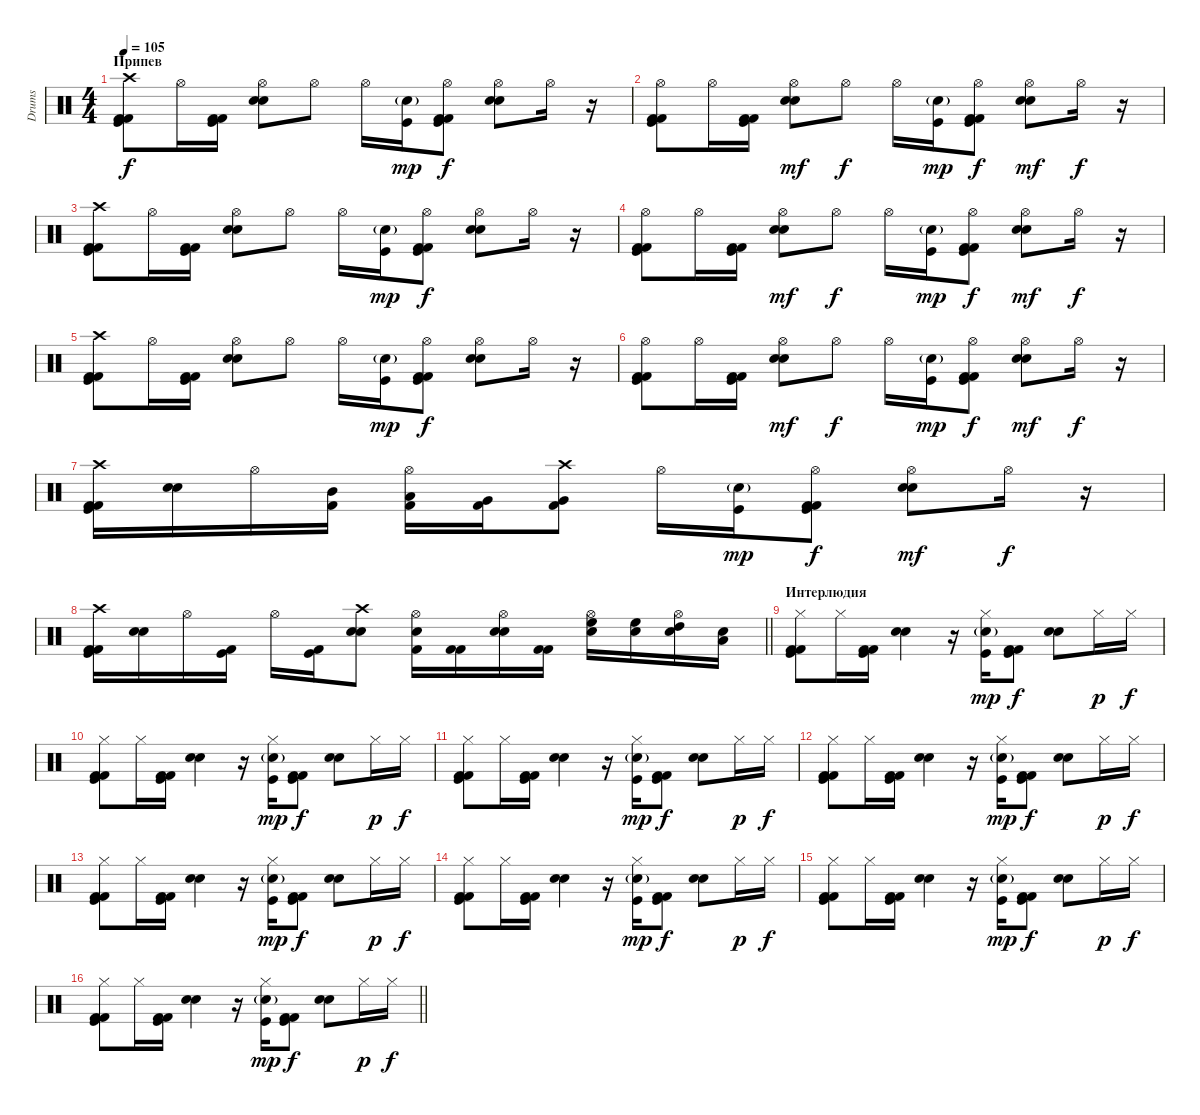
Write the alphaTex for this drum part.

\track ("Drums" "Drums") {instrument percussion}
\staff {score}
\articulation defaults
\ts (4 4)
\section ("" "Припев")
\tempo 105
\clef neutral
\ks c
("Crash high (hit)" "Kick (hit) 2" "Kick (hit) 2" "Kick (hit)").8{dy f volume 13} "Hi-Hat (open)".16 ("Kick (hit) 2" "Kick (hit) 2" "Kick (hit)").16 ("Hi-Hat (open)" "Electric Snare (hit)" "Snare (hit) 2").8 "Hi-Hat (open)".8 "Hi-Hat (open)".16 ("Snare (hit) 2"{g} "Kick (hit)").16{dy mp} ("Hi-Hat (open)" "Kick (hit) 2" "Kick (hit) 2" "Kick (hit)").8{dy f} ("Hi-Hat (open)" "Electric Snare (hit)" "Snare (hit) 2").8 "Hi-Hat (open)".16 r.16 |
("Hi-Hat (open)" "Kick (hit) 2" "Kick (hit) 2" "Kick (hit)").8 "Hi-Hat (open)".16 ("Kick (hit) 2" "Kick (hit) 2" "Kick (hit)").16 ("Hi-Hat (open)" "Electric Snare (hit)" "Snare (hit) 2").8{dy mf} "Hi-Hat (open)".8{dy f} "Hi-Hat (open)".16 ("Snare (hit) 2"{g} "Kick (hit)").16{dy mp} ("Hi-Hat (open)" "Kick (hit) 2" "Kick (hit) 2" "Kick (hit)").8{dy f} ("Hi-Hat (open)" "Electric Snare (hit)" "Snare (hit) 2").8{dy mf} "Hi-Hat (open)".16{dy f} r.16 |
("Crash high (hit)" "Kick (hit) 2" "Kick (hit) 2" "Kick (hit)").8 "Hi-Hat (open)".16 ("Kick (hit) 2" "Kick (hit) 2" "Kick (hit)").16 ("Hi-Hat (open)" "Electric Snare (hit)" "Snare (hit) 2").8 "Hi-Hat (open)".8 "Hi-Hat (open)".16 ("Snare (hit) 2"{g} "Kick (hit)").16{dy mp} ("Hi-Hat (open)" "Kick (hit) 2" "Kick (hit) 2" "Kick (hit)").8{dy f} ("Hi-Hat (open)" "Electric Snare (hit)" "Snare (hit) 2").8 "Hi-Hat (open)".16 r.16 |
("Hi-Hat (open)" "Kick (hit) 2" "Kick (hit) 2" "Kick (hit)").8 "Hi-Hat (open)".16 ("Kick (hit) 2" "Kick (hit) 2" "Kick (hit)").16 ("Hi-Hat (open)" "Electric Snare (hit)" "Snare (hit) 2").8{dy mf} "Hi-Hat (open)".8{dy f} "Hi-Hat (open)".16 ("Snare (hit) 2"{g} "Kick (hit)").16{dy mp} ("Hi-Hat (open)" "Kick (hit) 2" "Kick (hit) 2" "Kick (hit)").8{dy f} ("Hi-Hat (open)" "Electric Snare (hit)" "Snare (hit) 2").8{dy mf} "Hi-Hat (open)".16{dy f} r.16 |
("Crash high (hit)" "Kick (hit) 2" "Kick (hit) 2" "Kick (hit)").8 "Hi-Hat (open)".16 ("Kick (hit) 2" "Kick (hit) 2" "Kick (hit)").16 ("Hi-Hat (open)" "Electric Snare (hit)" "Snare (hit) 2").8 "Hi-Hat (open)".8 "Hi-Hat (open)".16 ("Snare (hit) 2"{g} "Kick (hit)").16{dy mp} ("Hi-Hat (open)" "Kick (hit) 2" "Kick (hit) 2" "Kick (hit)").8{dy f} ("Hi-Hat (open)" "Electric Snare (hit)" "Snare (hit) 2").8 "Hi-Hat (open)".16 r.16 |
("Hi-Hat (open)" "Kick (hit) 2" "Kick (hit) 2" "Kick (hit)").8 "Hi-Hat (open)".16 ("Kick (hit) 2" "Kick (hit) 2" "Kick (hit)").16 ("Hi-Hat (open)" "Electric Snare (hit)" "Snare (hit) 2").8{dy mf} "Hi-Hat (open)".8{dy f} "Hi-Hat (open)".16 ("Snare (hit) 2"{g} "Kick (hit)").16{dy mp} ("Hi-Hat (open)" "Kick (hit) 2" "Kick (hit) 2" "Kick (hit)").8{dy f} ("Hi-Hat (open)" "Electric Snare (hit)" "Snare (hit) 2").8{dy mf} "Hi-Hat (open)".16{dy f} r.16 |
("Crash high (hit)" "Kick (hit) 2" "Kick (hit) 2" "Kick (hit)").16 ("Electric Snare (hit)" "Snare (hit) 2").16 "Hi-Hat (open)".16 ("Mid Tom (hit)" "Kick (hit) 2").16 ("Hi-Hat (open)" "Low Tom (hit)" "Kick (hit) 2").16 ("Very Low Tom (hit)" "Kick (hit) 2").16 ("Crash high (hit)" "Very Low Tom (hit)" "Kick (hit) 2").8 "Hi-Hat (open)".16 ("Snare (hit) 2"{g} "Kick (hit)").16{dy mp} ("Hi-Hat (open)" "Kick (hit) 2" "Kick (hit) 2" "Kick (hit)").8{dy f} ("Hi-Hat (open)" "Electric Snare (hit)" "Snare (hit) 2").8{dy mf} "Hi-Hat (open)".16{dy f} r.16 |
\barLineRight lightlight
("Crash high (hit)" "Kick (hit) 2" "Kick (hit) 2" "Kick (hit)").16 ("Electric Snare (hit)" "Snare (hit) 2").16 "Hi-Hat (open)".16 ("Kick (hit) 2" "Kick (hit)").16 "Hi-Hat (open)".16 ("Kick (hit) 2" "Kick (hit)").16 ("Crash high (hit)" "Electric Snare (hit)" "Snare (hit) 2").8 ("Hi-Hat (open)" "Electric Snare (hit)" "Kick (hit) 2").16 ("Kick (hit) 2" "Kick (hit) 2").16 ("Hi-Hat (open)" "Electric Snare (hit)" "Electric Snare (hit)").16 ("Kick (hit) 2" "Kick (hit) 2").16 ("Hi-Hat (open)" "Electric Snare (hit)" "High Floor Tom (hit)").16 ("Electric Snare (hit)" "High Floor Tom (hit)").16 ("Hi-Hat (open)" "Electric Snare (hit)" "High Tom (hit)").16 ("Electric Snare (hit)" "Low Tom (hit)").16 |
\section ("" "Интерлюдия")
("Hi-Hat (closed)" "Kick (hit) 2" "Kick (hit) 2" "Kick (hit)").8 "Hi-Hat (closed)".16 ("Kick (hit) 2" "Kick (hit) 2" "Kick (hit)").16 ("Electric Snare (hit)" "Snare (hit) 2").4 r.16 ("Hi-Hat (closed)" "Snare (hit) 2"{g} "Kick (hit)").16{dy mp} ("Kick (hit) 2" "Kick (hit) 2" "Kick (hit)").8{dy f} ("Electric Snare (hit)" "Snare (hit) 2").8 "Hi-Hat (closed)".16{dy p} "Hi-Hat (closed)".16{dy f} |
("Hi-Hat (closed)" "Kick (hit) 2" "Kick (hit) 2" "Kick (hit)").8 "Hi-Hat (closed)".16 ("Kick (hit) 2" "Kick (hit) 2" "Kick (hit)").16 ("Electric Snare (hit)" "Snare (hit) 2").4 r.16 ("Hi-Hat (closed)" "Snare (hit) 2"{g} "Kick (hit)").16{dy mp} ("Kick (hit) 2" "Kick (hit) 2" "Kick (hit)").8{dy f} ("Electric Snare (hit)" "Snare (hit) 2").8 "Hi-Hat (closed)".16{dy p} "Hi-Hat (closed)".16{dy f} |
("Hi-Hat (closed)" "Kick (hit) 2" "Kick (hit) 2" "Kick (hit)").8 "Hi-Hat (closed)".16 ("Kick (hit) 2" "Kick (hit) 2" "Kick (hit)").16 ("Electric Snare (hit)" "Snare (hit) 2").4 r.16 ("Hi-Hat (closed)" "Snare (hit) 2"{g} "Kick (hit)").16{dy mp} ("Kick (hit) 2" "Kick (hit) 2" "Kick (hit)").8{dy f} ("Electric Snare (hit)" "Snare (hit) 2").8 "Hi-Hat (closed)".16{dy p} "Hi-Hat (closed)".16{dy f} |
("Hi-Hat (closed)" "Kick (hit) 2" "Kick (hit) 2" "Kick (hit)").8 "Hi-Hat (closed)".16 ("Kick (hit) 2" "Kick (hit) 2" "Kick (hit)").16 ("Electric Snare (hit)" "Snare (hit) 2").4 r.16 ("Hi-Hat (closed)" "Snare (hit) 2"{g} "Kick (hit)").16{dy mp} ("Kick (hit) 2" "Kick (hit) 2" "Kick (hit)").8{dy f} ("Electric Snare (hit)" "Snare (hit) 2").8 "Hi-Hat (closed)".16{dy p} "Hi-Hat (closed)".16{dy f} |
("Hi-Hat (closed)" "Kick (hit) 2" "Kick (hit) 2" "Kick (hit)").8 "Hi-Hat (closed)".16 ("Kick (hit) 2" "Kick (hit) 2" "Kick (hit)").16 ("Electric Snare (hit)" "Snare (hit) 2").4 r.16 ("Hi-Hat (closed)" "Snare (hit) 2"{g} "Kick (hit)").16{dy mp} ("Kick (hit) 2" "Kick (hit) 2" "Kick (hit)").8{dy f} ("Electric Snare (hit)" "Snare (hit) 2").8 "Hi-Hat (closed)".16{dy p} "Hi-Hat (closed)".16{dy f} |
("Hi-Hat (closed)" "Kick (hit) 2" "Kick (hit) 2" "Kick (hit)").8 "Hi-Hat (closed)".16 ("Kick (hit) 2" "Kick (hit) 2" "Kick (hit)").16 ("Electric Snare (hit)" "Snare (hit) 2").4 r.16 ("Hi-Hat (closed)" "Snare (hit) 2"{g} "Kick (hit)").16{dy mp} ("Kick (hit) 2" "Kick (hit) 2" "Kick (hit)").8{dy f} ("Electric Snare (hit)" "Snare (hit) 2").8 "Hi-Hat (closed)".16{dy p} "Hi-Hat (closed)".16{dy f} |
("Hi-Hat (closed)" "Kick (hit) 2" "Kick (hit) 2" "Kick (hit)").8 "Hi-Hat (closed)".16 ("Kick (hit) 2" "Kick (hit) 2" "Kick (hit)").16 ("Electric Snare (hit)" "Snare (hit) 2").4 r.16 ("Hi-Hat (closed)" "Snare (hit) 2"{g} "Kick (hit)").16{dy mp} ("Kick (hit) 2" "Kick (hit) 2" "Kick (hit)").8{dy f} ("Electric Snare (hit)" "Snare (hit) 2").8 "Hi-Hat (closed)".16{dy p} "Hi-Hat (closed)".16{dy f} |
\barLineRight lightlight
("Hi-Hat (closed)" "Kick (hit) 2" "Kick (hit) 2" "Kick (hit)").8 "Hi-Hat (closed)".16 ("Kick (hit) 2" "Kick (hit) 2" "Kick (hit)").16 ("Electric Snare (hit)" "Snare (hit) 2").4 r.16 ("Hi-Hat (closed)" "Snare (hit) 2"{g} "Kick (hit)").16{dy mp} ("Kick (hit) 2" "Kick (hit) 2" "Kick (hit)").8{dy f} ("Electric Snare (hit)" "Snare (hit) 2").8 "Hi-Hat (closed)".16{dy p} "Hi-Hat (closed)".16{dy f}
